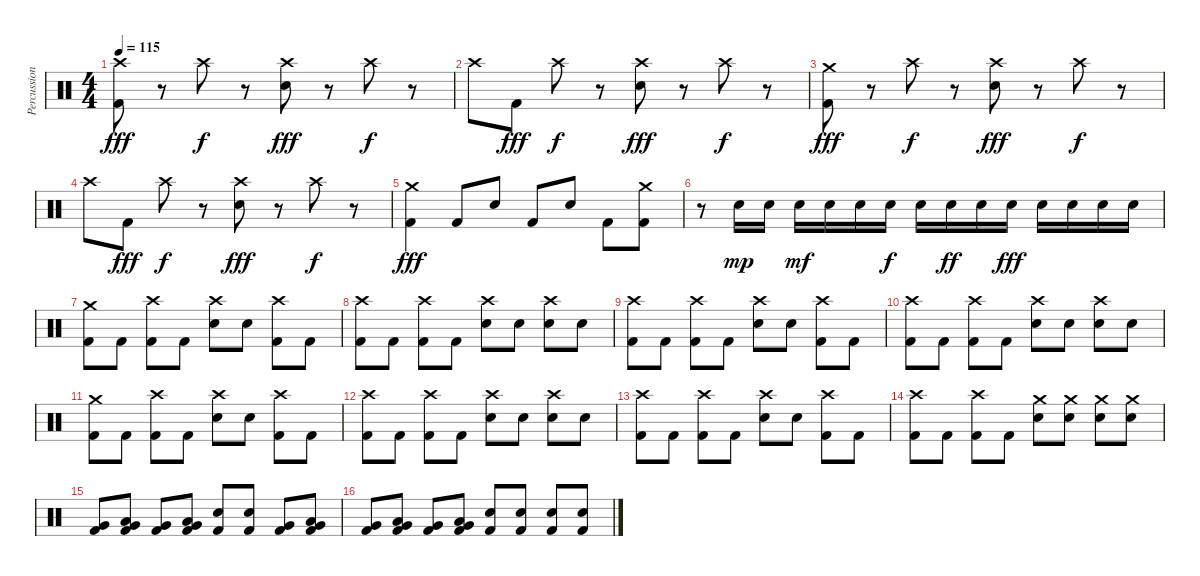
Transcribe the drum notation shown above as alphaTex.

\track ("Percussion" "Percussion") {instrument percussion}
\staff {score}
\articulation defaults
\ts (4 4)
\tempo 115
\clef neutral
\ks c
("Crash high (hit)" "Kick (hit) 2").8{dy fff} r.8 "Crash high (hit)".8{dy f} r.8 ("Crash high (hit)" "Snare (hit) 2").8{dy fff} r.8 "Crash high (hit)".8{dy f} r.8 |
"Crash high (hit)".8 "Kick (hit) 2".8{dy fff} "Crash high (hit)".8{dy f} r.8 ("Crash high (hit)" "Snare (hit) 2").8{dy fff} r.8 "Crash high (hit)".8{dy f} r.8 |
("Crash medium (hit)" "Kick (hit) 2").8{dy fff} r.8 "Crash high (hit)".8{dy f} r.8 ("Crash high (hit)" "Snare (hit) 2").8{dy fff} r.8 "Crash high (hit)".8{dy f} r.8 |
"Crash high (hit)".8 "Kick (hit) 2".8{dy fff} "Crash high (hit)".8{dy f} r.8 ("Crash high (hit)" "Snare (hit) 2").8{dy fff} r.8 "Crash high (hit)".8{dy f} r.8 |
("Crash medium (hit)" "Kick (hit) 2").4{dy fff} "Kick (hit) 2".8 "Snare (hit) 2".8 "Kick (hit) 2".8 "Snare (hit) 2".8 "Kick (hit) 2".8 ("Crash medium (hit)" "Kick (hit) 2").8 |
r.8 "Snare (hit) 2".16{dy mp} "Snare (hit) 2".16 "Snare (hit) 2".16{dy mf} "Snare (hit) 2".16 "Snare (hit) 2".16 "Snare (hit) 2".16{dy f} "Snare (hit) 2".16 "Snare (hit) 2".16{dy ff} "Snare (hit) 2".16 "Snare (hit) 2".16{dy fff} "Snare (hit) 2".16 "Snare (hit) 2".16 "Snare (hit) 2".16 "Snare (hit) 2".16 |
("Crash medium (hit)" "Kick (hit) 2").8 "Kick (hit) 2".8 ("Crash high (hit)" "Kick (hit) 2").8 "Kick (hit) 2".8 ("Crash high (hit)" "Snare (hit) 2").8 "Snare (hit) 2".8 ("Crash high (hit)" "Kick (hit) 2").8 "Kick (hit) 2".8 |
("Crash high (hit)" "Kick (hit) 2").8 "Kick (hit) 2".8 ("Crash high (hit)" "Kick (hit) 2").8 "Kick (hit) 2".8 ("Crash high (hit)" "Snare (hit) 2").8 "Snare (hit) 2".8 ("Crash high (hit)" "Snare (hit) 2").8 "Snare (hit) 2".8 |
("Crash high (hit)" "Kick (hit) 2").8 "Kick (hit) 2".8 ("Crash high (hit)" "Kick (hit) 2").8 "Kick (hit) 2".8 ("Crash high (hit)" "Snare (hit) 2").8 "Snare (hit) 2".8 ("Crash high (hit)" "Kick (hit) 2").8 "Kick (hit) 2".8 |
("Crash high (hit)" "Kick (hit) 2").8 "Kick (hit) 2".8 ("Crash high (hit)" "Kick (hit) 2").8 "Kick (hit) 2".8 ("Crash high (hit)" "Snare (hit) 2").8 "Snare (hit) 2".8 ("Crash high (hit)" "Snare (hit) 2").8 "Snare (hit) 2".8 |
("Crash medium (hit)" "Kick (hit) 2").8 "Kick (hit) 2".8 ("Crash high (hit)" "Kick (hit) 2").8 "Kick (hit) 2".8 ("Crash high (hit)" "Snare (hit) 2").8 "Snare (hit) 2".8 ("Crash high (hit)" "Kick (hit) 2").8 "Kick (hit) 2".8 |
("Crash high (hit)" "Kick (hit) 2").8 "Kick (hit) 2".8 ("Crash high (hit)" "Kick (hit) 2").8 "Kick (hit) 2".8 ("Crash high (hit)" "Snare (hit) 2").8 "Snare (hit) 2".8 ("Crash high (hit)" "Snare (hit) 2").8 "Snare (hit) 2".8 |
("Crash high (hit)" "Kick (hit) 2").8 "Kick (hit) 2".8 ("Crash high (hit)" "Kick (hit) 2").8 "Kick (hit) 2".8 ("Crash high (hit)" "Snare (hit) 2").8 "Snare (hit) 2".8 ("Crash high (hit)" "Kick (hit) 2").8 "Kick (hit) 2".8 |
("Crash high (hit)" "Kick (hit) 2").8 "Kick (hit) 2".8 ("Crash high (hit)" "Kick (hit) 2").8 "Kick (hit) 2".8 ("Crash medium (hit)" "Snare (hit) 2").8 ("Crash medium (hit)" "Snare (hit) 2").8 ("Crash medium (hit)" "Snare (hit) 2").8 ("Crash medium (hit)" "Snare (hit) 2").8 |
("Very Low Tom (hit)" "Kick (hit) 2").8 ("Low Tom (hit)" "Very Low Tom (hit)" "Kick (hit) 2").8 ("Very Low Tom (hit)" "Kick (hit) 2").8 ("Low Tom (hit)" "Very Low Tom (hit)" "Kick (hit) 2").8 ("Snare (hit) 2" "Kick (hit) 2").8 ("Snare (hit) 2" "Kick (hit) 2").8 ("Very Low Tom (hit)" "Kick (hit) 2").8 ("Low Tom (hit)" "Very Low Tom (hit)" "Kick (hit) 2").8 |
("Very Low Tom (hit)" "Kick (hit) 2").8 ("Low Tom (hit)" "Very Low Tom (hit)" "Kick (hit) 2").8 ("Very Low Tom (hit)" "Kick (hit) 2").8 ("Low Tom (hit)" "Very Low Tom (hit)" "Kick (hit) 2").8 ("Snare (hit) 2" "Kick (hit) 2").8 ("Snare (hit) 2" "Kick (hit) 2").8 ("Snare (hit) 2" "Kick (hit) 2").8 ("Snare (hit) 2" "Kick (hit) 2").8
